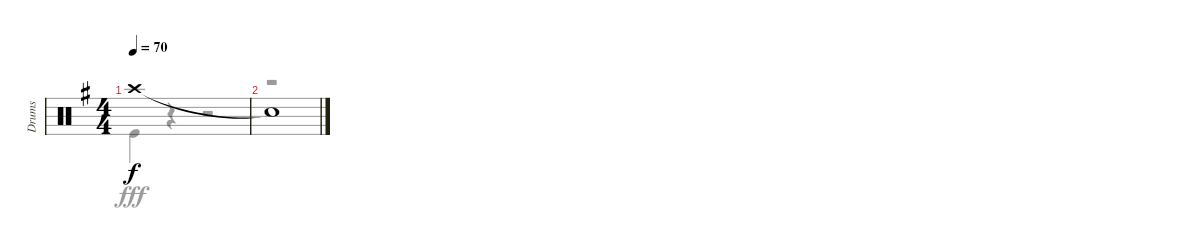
\track ("Drums" "Drums") {instrument percussion}
\staff {score}
\articulation defaults
\voice
\ts (4 4)
\tempo 70
\clef neutral
\ks g "Crash high (hit)".1{dy f}
|
"Snare (hit)"{t}.1
\voice
\clef neutral
\ottava regular
\simile none
\ks g "Kick (hit)".4{dy fff}
r.4 r.2 |
r.1
